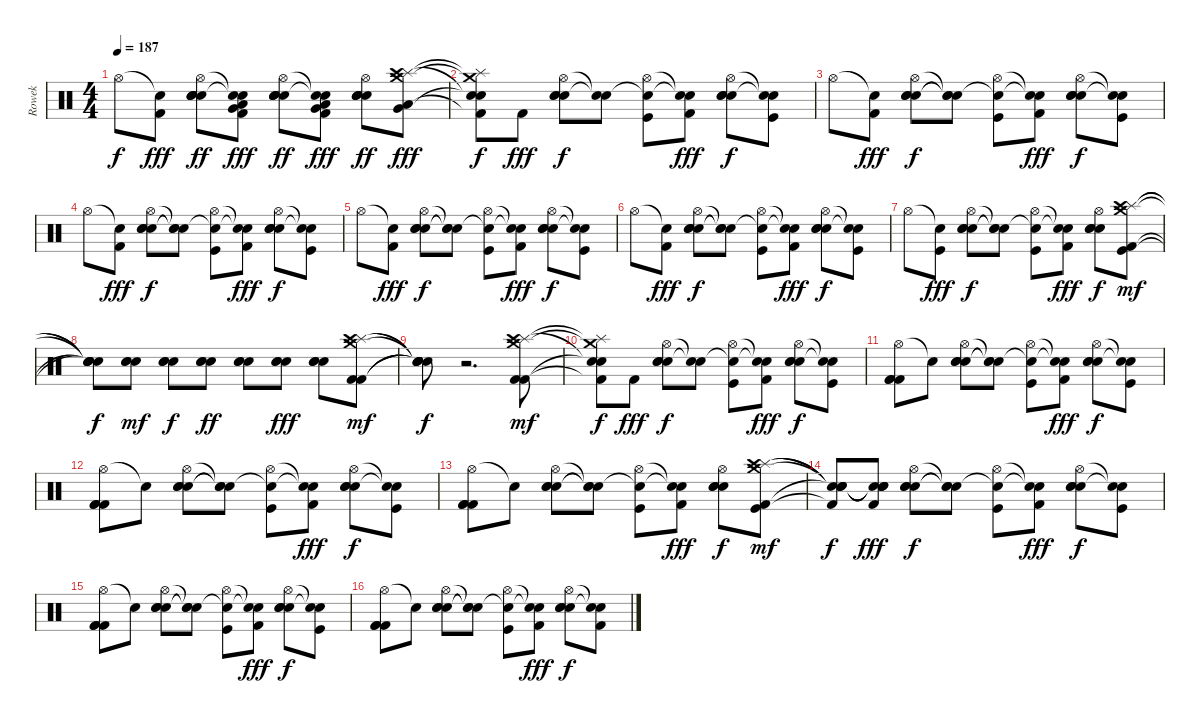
\track ("Rowek" "Rowek") {instrument percussion}
\staff {score}
\articulation defaults
\ts (4 4)
\tempo 187
\clef neutral
\ks c "Hi-Hat (open)".8{dy f}
("Snare (hit)"{t} "Kick (hit) 2").8{dy fff} ("Electric Snare (hit)" "Hi-Hat (open)" "Electric Snare (hit)" "Electric Snare (hit)" "Electric Snare (hit)").8{dy ff} ("Kick (hit) 2" "Snare (hit)"{t} "Snare (hit)"{t} "Very Low Tom (hit)" "Low Tom (hit)").8{dy fff} ("Electric Snare (hit)" "Hi-Hat (open)" "Electric Snare (hit)" "Electric Snare (hit)" "Electric Snare (hit)").8{dy ff} ("Kick (hit) 2" "Snare (hit)"{t} "Snare (hit)"{t} "Very Low Tom (hit)" "Low Tom (hit)").8{dy fff} ("Electric Snare (hit)" "Hi-Hat (open)" "Electric Snare (hit)" "Electric Snare (hit)" "Electric Snare (hit)").8{dy ff} ("Crash medium (hit)" "Splash (hit)" "Crash high (hit)" "Very Low Tom (hit)" "Low Tom (hit)").8{dy fff} |
("Crash medium (hit)"{t} "Splash (hit)"{t} "Snare (hit)"{t} "Snare (hit)"{t} "Kick (hit) 2"{t}).8{dy f} "Kick (hit) 2".8{dy fff} ("Hi-Hat (open)" "Electric Snare (hit)" "Electric Snare (hit)" "Electric Snare (hit)").8{dy f} ("Snare (hit)"{t} "Snare (hit)"{t}).8 ("Hi-Hat (open)" "Snare (hit)"{t} "Kick (hit)").8 ("Snare (hit)"{t} "Snare (hit)"{t} "Kick (hit) 2").8{dy fff} ("Hi-Hat (open)" "Electric Snare (hit)" "Electric Snare (hit)" "Electric Snare (hit)").8{dy f} ("Snare (hit)"{t} "Snare (hit)"{t} "Kick (hit)").8 |
"Hi-Hat (open)".8 ("Snare (hit)"{t} "Kick (hit) 2").8{dy fff} ("Hi-Hat (open)" "Electric Snare (hit)" "Electric Snare (hit)" "Electric Snare (hit)").8{dy f} ("Snare (hit)"{t} "Snare (hit)"{t} "Snare (hit)"{t}).8 ("Hi-Hat (open)" "Snare (hit)"{t} "Kick (hit)").8 ("Snare (hit)"{t} "Snare (hit)"{t} "Kick (hit) 2").8{dy fff} ("Hi-Hat (open)" "Electric Snare (hit)" "Electric Snare (hit)" "Electric Snare (hit)").8{dy f} ("Snare (hit)"{t} "Snare (hit)"{t} "Kick (hit)").8 |
"Hi-Hat (open)".8 ("Snare (hit)"{t} "Kick (hit) 2").8{dy fff} ("Hi-Hat (open)" "Electric Snare (hit)" "Electric Snare (hit)" "Electric Snare (hit)").8{dy f} ("Snare (hit)"{t} "Snare (hit)"{t} "Snare (hit)"{t}).8 ("Hi-Hat (open)" "Snare (hit)"{t} "Kick (hit)").8 ("Snare (hit)"{t} "Snare (hit)"{t} "Kick (hit) 2").8{dy fff} ("Hi-Hat (open)" "Electric Snare (hit)" "Electric Snare (hit)" "Electric Snare (hit)").8{dy f} ("Snare (hit)"{t} "Snare (hit)"{t} "Kick (hit)").8 |
"Hi-Hat (open)".8 ("Snare (hit)"{t} "Kick (hit) 2").8{dy fff} ("Hi-Hat (open)" "Electric Snare (hit)" "Electric Snare (hit)" "Electric Snare (hit)").8{dy f} ("Snare (hit)"{t} "Snare (hit)"{t} "Snare (hit)"{t}).8 ("Hi-Hat (open)" "Snare (hit)"{t} "Kick (hit)").8 ("Snare (hit)"{t} "Snare (hit)"{t} "Kick (hit) 2").8{dy fff} ("Hi-Hat (open)" "Electric Snare (hit)" "Electric Snare (hit)" "Electric Snare (hit)").8{dy f} ("Snare (hit)"{t} "Snare (hit)"{t} "Kick (hit)").8 |
"Hi-Hat (open)".8 ("Snare (hit)"{t} "Kick (hit) 2").8{dy fff} ("Hi-Hat (open)" "Electric Snare (hit)" "Electric Snare (hit)" "Electric Snare (hit)").8{dy f} ("Snare (hit)"{t} "Snare (hit)"{t} "Snare (hit)"{t}).8 ("Hi-Hat (open)" "Snare (hit)"{t} "Kick (hit)").8 ("Snare (hit)"{t} "Snare (hit)"{t} "Kick (hit) 2").8{dy fff} ("Hi-Hat (open)" "Electric Snare (hit)" "Electric Snare (hit)" "Electric Snare (hit)").8{dy f} ("Snare (hit)"{t} "Snare (hit)"{t} "Kick (hit)").8 |
"Hi-Hat (open)".8 ("Snare (hit)"{t} "Kick (hit)").8{dy fff} ("Hi-Hat (open)" "Electric Snare (hit)" "Electric Snare (hit)" "Electric Snare (hit)").8{dy f} ("Snare (hit)"{t} "Snare (hit)"{t} "Snare (hit)"{t}).8 ("Hi-Hat (open)" "Snare (hit)"{t} "Kick (hit)").8 ("Snare (hit)"{t} "Snare (hit)"{t} "Kick (hit) 2").8{dy fff} ("Hi-Hat (open)" "Electric Snare (hit)" "Electric Snare (hit)" "Electric Snare (hit)").8{dy f} ("Crash medium (hit)" "Splash (hit)" "Crash high (hit)" "Kick (hit) 2" "Kick (hit)").8{dy mf} |
("Snare (hit)"{t} "Snare (hit)"{t} "Snare (hit)"{t} "Snare (hit)"{t} "Snare (hit)"{t}).8{dy f} ("Electric Snare (hit)" "Electric Snare (hit)" "Electric Snare (hit)").8{dy mf} ("Electric Snare (hit)" "Electric Snare (hit)" "Electric Snare (hit)").8{dy f} ("Electric Snare (hit)" "Electric Snare (hit)" "Electric Snare (hit)").8{dy ff} ("Electric Snare (hit)" "Electric Snare (hit)" "Electric Snare (hit)").8 ("Electric Snare (hit)" "Electric Snare (hit)" "Electric Snare (hit)").8{dy fff} ("Electric Snare (hit)" "Electric Snare (hit)" "Electric Snare (hit)").8 ("Crash medium (hit)" "Splash (hit)" "Crash high (hit)" "Kick (hit) 2" "Kick (hit) 2").8{dy mf} |
("Snare (hit)"{t} "Snare (hit)"{t} "Snare (hit)"{t} "Snare (hit)"{t} "Snare (hit)"{t}).8{dy f} r.2{d} ("Crash medium (hit)" "Splash (hit)" "Crash high (hit)" "Kick (hit) 2" "Kick (hit) 2").8{dy mf} |
("Crash medium (hit)"{t} "Splash (hit)"{t} "Snare (hit)"{t} "Snare (hit)"{t} "Kick (hit) 2"{t}).8{dy f} "Kick (hit) 2".8{dy fff} ("Hi-Hat (open)" "Electric Snare (hit)" "Electric Snare (hit)" "Electric Snare (hit)").8{dy f} ("Snare (hit)"{t} "Snare (hit)"{t}).8 ("Hi-Hat (open)" "Snare (hit)"{t} "Kick (hit)").8 ("Snare (hit)"{t} "Snare (hit)"{t} "Kick (hit) 2").8{dy fff} ("Hi-Hat (open)" "Electric Snare (hit)" "Electric Snare (hit)" "Electric Snare (hit)").8{dy f} ("Snare (hit)"{t} "Snare (hit)"{t} "Kick (hit)").8 |
("Hi-Hat (open)" "Kick (hit) 2" "Kick (hit) 2" "Kick (hit) 2").8 "Snare (hit)"{t}.8 ("Hi-Hat (open)" "Electric Snare (hit)" "Electric Snare (hit)" "Electric Snare (hit)").8 ("Snare (hit)"{t} "Snare (hit)"{t} "Snare (hit)"{t}).8 ("Hi-Hat (open)" "Snare (hit)"{t} "Kick (hit)").8 ("Snare (hit)"{t} "Snare (hit)"{t} "Kick (hit) 2").8{dy fff} ("Hi-Hat (open)" "Electric Snare (hit)" "Electric Snare (hit)" "Electric Snare (hit)").8{dy f} ("Snare (hit)"{t} "Snare (hit)"{t} "Kick (hit)").8 |
("Hi-Hat (open)" "Kick (hit) 2" "Kick (hit) 2" "Kick (hit) 2").8 "Snare (hit)"{t}.8 ("Hi-Hat (open)" "Electric Snare (hit)" "Electric Snare (hit)" "Electric Snare (hit)").8 ("Snare (hit)"{t} "Snare (hit)"{t} "Snare (hit)"{t}).8 ("Hi-Hat (open)" "Snare (hit)"{t} "Kick (hit)").8 ("Snare (hit)"{t} "Snare (hit)"{t} "Kick (hit) 2").8{dy fff} ("Hi-Hat (open)" "Electric Snare (hit)" "Electric Snare (hit)" "Electric Snare (hit)").8{dy f} ("Snare (hit)"{t} "Snare (hit)"{t} "Kick (hit)").8 |
("Hi-Hat (open)" "Kick (hit) 2" "Kick (hit) 2" "Kick (hit) 2").8 "Snare (hit)"{t}.8 ("Hi-Hat (open)" "Electric Snare (hit)" "Electric Snare (hit)" "Electric Snare (hit)").8 ("Snare (hit)"{t} "Snare (hit)"{t} "Snare (hit)"{t}).8 ("Hi-Hat (open)" "Snare (hit)"{t} "Kick (hit)").8 ("Snare (hit)"{t} "Snare (hit)"{t} "Kick (hit) 2").8{dy fff} ("Hi-Hat (open)" "Electric Snare (hit)" "Electric Snare (hit)" "Electric Snare (hit)").8{dy f} ("Crash medium (hit)" "Splash (hit)" "Crash high (hit)" "Kick (hit) 2" "Kick (hit)").8{dy mf} |
("Snare (hit)"{t} "Snare (hit)"{t} "Snare (hit)"{t} "Snare (hit)"{t} "Kick (hit) 2"{t}).8{dy f} ("Snare (hit)"{t} "Snare (hit)"{t} "Snare (hit)"{t} "Snare (hit)"{t} "Kick (hit) 2").8{dy fff} ("Hi-Hat (open)" "Electric Snare (hit)" "Electric Snare (hit)" "Electric Snare (hit)").8{dy f} ("Snare (hit)"{t} "Snare (hit)"{t} "Snare (hit)"{t}).8 ("Hi-Hat (open)" "Snare (hit)"{t} "Kick (hit)").8 ("Snare (hit)"{t} "Snare (hit)"{t} "Kick (hit) 2").8{dy fff} ("Hi-Hat (open)" "Electric Snare (hit)" "Electric Snare (hit)" "Electric Snare (hit)").8{dy f} ("Snare (hit)"{t} "Snare (hit)"{t} "Kick (hit)").8 |
("Hi-Hat (open)" "Kick (hit) 2" "Kick (hit) 2" "Kick (hit) 2").8 "Snare (hit)"{t}.8 ("Hi-Hat (open)" "Electric Snare (hit)" "Electric Snare (hit)" "Electric Snare (hit)").8 ("Snare (hit)"{t} "Snare (hit)"{t} "Snare (hit)"{t}).8 ("Hi-Hat (open)" "Snare (hit)"{t} "Kick (hit)").8 ("Snare (hit)"{t} "Snare (hit)"{t} "Kick (hit) 2").8{dy fff} ("Hi-Hat (open)" "Electric Snare (hit)" "Electric Snare (hit)" "Electric Snare (hit)").8{dy f} ("Snare (hit)"{t} "Snare (hit)"{t} "Kick (hit)").8 |
("Hi-Hat (open)" "Kick (hit) 2" "Kick (hit) 2" "Kick (hit) 2").8 "Snare (hit)"{t}.8 ("Hi-Hat (open)" "Electric Snare (hit)" "Electric Snare (hit)" "Electric Snare (hit)").8 ("Snare (hit)"{t} "Snare (hit)"{t} "Snare (hit)"{t}).8 ("Hi-Hat (open)" "Snare (hit)"{t} "Kick (hit)").8 ("Snare (hit)"{t} "Snare (hit)"{t} "Kick (hit) 2").8{dy fff} ("Hi-Hat (open)" "Electric Snare (hit)" "Electric Snare (hit)" "Electric Snare (hit)").8{dy f} ("Snare (hit)"{t} "Snare (hit)"{t} "Kick (hit) 2").8
